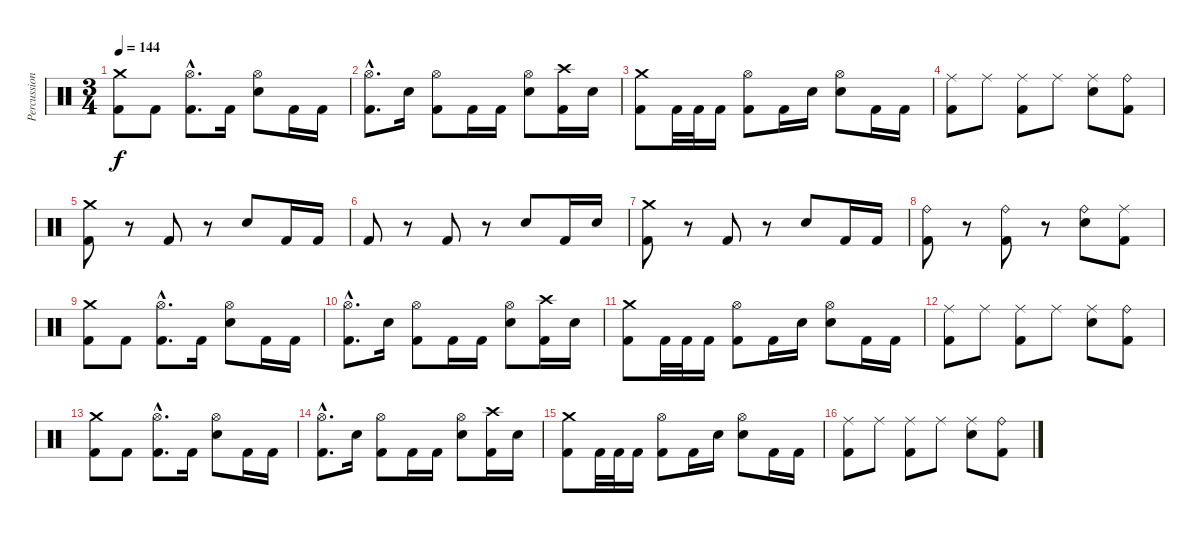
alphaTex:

\track ("Percussion" "Percussion") {instrument percussion}
\staff {score}
\articulation defaults
\ts (3 4)
\tempo 144
\clef neutral
\ks c
("Crash medium (hit)" "Kick (hit) 2").8{dy f} "Kick (hit) 2".8 ("Hi-Hat (open)"{hac} "Kick (hit) 2"{hac}).8{d} "Kick (hit) 2".16 ("Hi-Hat (open)" "Electric Snare (hit)").8 "Kick (hit) 2".16 "Kick (hit) 2".16 |
("Hi-Hat (open)"{hac} "Kick (hit) 2"{hac}).8{d} "Electric Snare (hit)".16 ("Hi-Hat (open)" "Kick (hit) 2").8 "Kick (hit) 2".16 "Kick (hit) 2".16 ("Hi-Hat (open)" "Electric Snare (hit)").8 ("Crash high (hit)" "Kick (hit) 2").16 "Electric Snare (hit)".16 |
("Crash medium (hit)" "Kick (hit) 2").8 "Kick (hit) 2".32 "Kick (hit) 2".32 "Kick (hit) 2".16 ("Hi-Hat (open)" "Kick (hit) 2").8 "Kick (hit) 2".16 "Electric Snare (hit)".16 ("Hi-Hat (open)" "Electric Snare (hit)").8 "Kick (hit) 2".16 "Kick (hit) 2".16 |
("Ride (middle)" "Kick (hit) 2").8 "Ride (middle)".8 ("Ride (middle)" "Kick (hit) 2").8 "Ride (middle)".8 ("Ride (middle)" "Electric Snare (hit)").8 ("Ride (bell)" "Kick (hit) 2").8 |
("Crash medium (hit)" "Kick (hit) 2").8 r.8 "Kick (hit) 2".8 r.8 "Electric Snare (hit)".8 "Kick (hit) 2".16 "Kick (hit) 2".16 |
"Kick (hit) 2".8 r.8 "Kick (hit) 2".8 r.8 "Electric Snare (hit)".8 "Kick (hit) 2".16 "Electric Snare (hit)".16 |
("Crash medium (hit)" "Kick (hit) 2").8 r.8 "Kick (hit) 2".8 r.8 "Electric Snare (hit)".8 "Kick (hit) 2".16 "Kick (hit) 2".16 |
("Ride (bell)" "Kick (hit) 2").8 r.8 ("Ride (bell)" "Kick (hit) 2").8 r.8 ("Ride (bell)" "Electric Snare (hit)").8 ("Ride (middle)" "Kick (hit) 2").8 |
("Crash medium (hit)" "Kick (hit) 2").8 "Kick (hit) 2".8 ("Hi-Hat (open)"{hac} "Kick (hit) 2"{hac}).8{d} "Kick (hit) 2".16 ("Hi-Hat (open)" "Electric Snare (hit)").8 "Kick (hit) 2".16 "Kick (hit) 2".16 |
("Hi-Hat (open)"{hac} "Kick (hit) 2"{hac}).8{d} "Electric Snare (hit)".16 ("Hi-Hat (open)" "Kick (hit) 2").8 "Kick (hit) 2".16 "Kick (hit) 2".16 ("Hi-Hat (open)" "Electric Snare (hit)").8 ("Crash high (hit)" "Kick (hit) 2").16 "Electric Snare (hit)".16 |
("Crash medium (hit)" "Kick (hit) 2").8 "Kick (hit) 2".32 "Kick (hit) 2".32 "Kick (hit) 2".16 ("Hi-Hat (open)" "Kick (hit) 2").8 "Kick (hit) 2".16 "Electric Snare (hit)".16 ("Hi-Hat (open)" "Electric Snare (hit)").8 "Kick (hit) 2".16 "Kick (hit) 2".16 |
("Ride (middle)" "Kick (hit) 2").8 "Ride (middle)".8 ("Ride (middle)" "Kick (hit) 2").8 "Ride (middle)".8 ("Ride (middle)" "Electric Snare (hit)").8 ("Ride (bell)" "Kick (hit) 2").8 |
("Crash medium (hit)" "Kick (hit) 2").8 "Kick (hit) 2".8 ("Hi-Hat (open)"{hac} "Kick (hit) 2"{hac}).8{d} "Kick (hit) 2".16 ("Hi-Hat (open)" "Electric Snare (hit)").8 "Kick (hit) 2".16 "Kick (hit) 2".16 |
("Hi-Hat (open)"{hac} "Kick (hit) 2"{hac}).8{d} "Electric Snare (hit)".16 ("Hi-Hat (open)" "Kick (hit) 2").8 "Kick (hit) 2".16 "Kick (hit) 2".16 ("Hi-Hat (open)" "Electric Snare (hit)").8 ("Crash high (hit)" "Kick (hit) 2").16 "Electric Snare (hit)".16 |
("Crash medium (hit)" "Kick (hit) 2").8 "Kick (hit) 2".32 "Kick (hit) 2".32 "Kick (hit) 2".16 ("Hi-Hat (open)" "Kick (hit) 2").8 "Kick (hit) 2".16 "Electric Snare (hit)".16 ("Hi-Hat (open)" "Electric Snare (hit)").8 "Kick (hit) 2".16 "Kick (hit) 2".16 |
("Ride (middle)" "Kick (hit) 2").8 "Ride (middle)".8 ("Ride (middle)" "Kick (hit) 2").8 "Ride (middle)".8 ("Ride (middle)" "Electric Snare (hit)").8 ("Ride (bell)" "Kick (hit) 2").8
